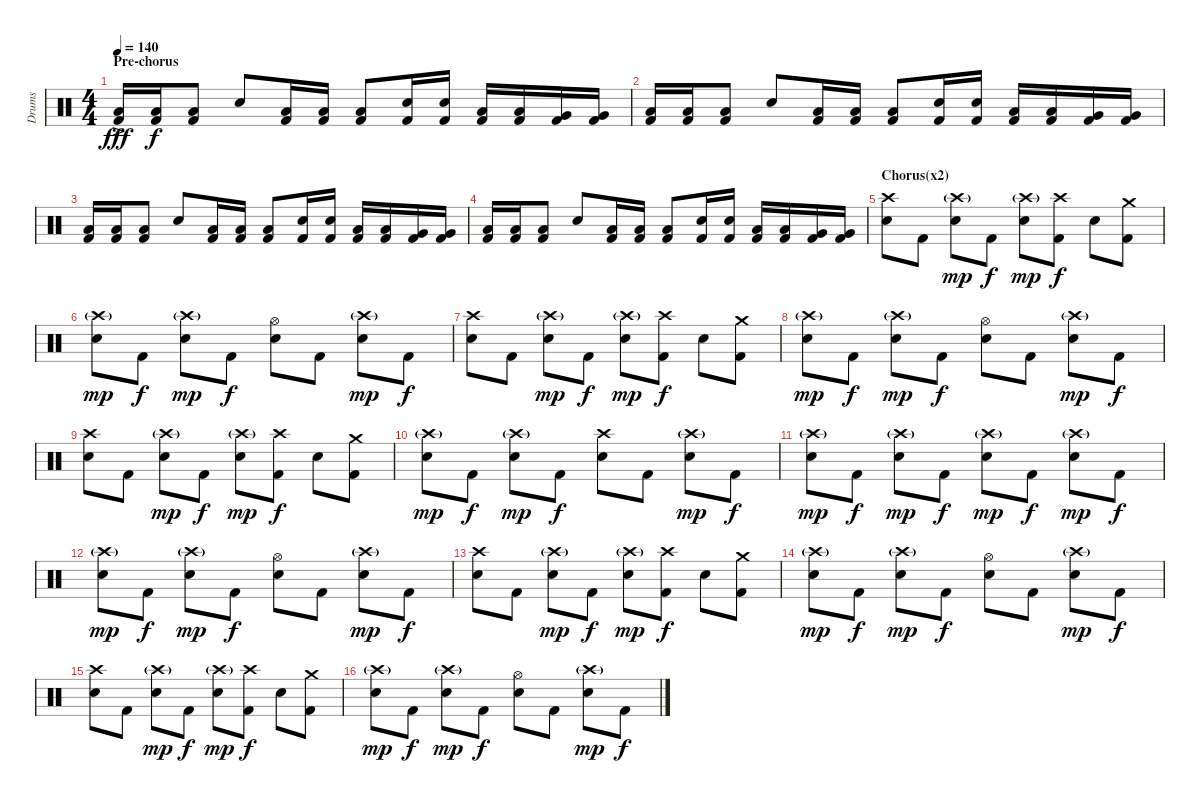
\track ("Drums" "Drums") {instrument percussion}
\staff {score}
\articulation defaults
\ts (4 4)
\section ("" "Pre-chorus")
\tempo 140
\clef neutral
\ks c
("Kick (hit) 2"{ac} "Low Tom (hit)").16{dy fff volume 12} ("Kick (hit) 2" "Low Tom (hit)").16{dy f} ("Kick (hit) 2" "Low Tom (hit)").8 "Electric Snare (hit)".8 ("Kick (hit) 2" "Low Tom (hit)").16 ("Kick (hit) 2" "Low Tom (hit)").16 ("Kick (hit) 2" "Low Tom (hit)").8 ("Kick (hit) 2" "Electric Snare (hit)").16 ("Kick (hit) 2" "Electric Snare (hit)").16 ("Kick (hit) 2" "Low Tom (hit)").16 ("Kick (hit) 2" "Low Tom (hit)").16 ("Kick (hit) 2" "Very Low Tom (hit)").16 ("Kick (hit) 2" "Very Low Tom (hit)").16 |
("Kick (hit) 2" "Low Tom (hit)").16 ("Kick (hit) 2" "Low Tom (hit)").16 ("Kick (hit) 2" "Low Tom (hit)").8 "Electric Snare (hit)".8 ("Kick (hit) 2" "Low Tom (hit)").16 ("Kick (hit) 2" "Low Tom (hit)").16 ("Kick (hit) 2" "Low Tom (hit)").8 ("Kick (hit) 2" "Electric Snare (hit)").16 ("Kick (hit) 2" "Electric Snare (hit)").16 ("Kick (hit) 2" "Low Tom (hit)").16 ("Kick (hit) 2" "Low Tom (hit)").16 ("Kick (hit) 2" "Very Low Tom (hit)").16 ("Kick (hit) 2" "Very Low Tom (hit)").16 |
("Kick (hit) 2" "Low Tom (hit)").16 ("Kick (hit) 2" "Low Tom (hit)").16 ("Kick (hit) 2" "Low Tom (hit)").8 "Electric Snare (hit)".8 ("Kick (hit) 2" "Low Tom (hit)").16 ("Kick (hit) 2" "Low Tom (hit)").16 ("Kick (hit) 2" "Low Tom (hit)").8 ("Kick (hit) 2" "Electric Snare (hit)").16 ("Kick (hit) 2" "Electric Snare (hit)").16 ("Kick (hit) 2" "Low Tom (hit)").16 ("Kick (hit) 2" "Low Tom (hit)").16 ("Kick (hit) 2" "Very Low Tom (hit)").16 ("Kick (hit) 2" "Very Low Tom (hit)").16 |
("Kick (hit) 2" "Low Tom (hit)").16 ("Kick (hit) 2" "Low Tom (hit)").16 ("Kick (hit) 2" "Low Tom (hit)").8 "Electric Snare (hit)".8 ("Kick (hit) 2" "Low Tom (hit)").16 ("Kick (hit) 2" "Low Tom (hit)").16 ("Kick (hit) 2" "Low Tom (hit)").8 ("Kick (hit) 2" "Electric Snare (hit)").16 ("Kick (hit) 2" "Electric Snare (hit)").16 ("Kick (hit) 2" "Low Tom (hit)").16 ("Kick (hit) 2" "Low Tom (hit)").16 ("Kick (hit) 2" "Very Low Tom (hit)").16 ("Kick (hit) 2" "Very Low Tom (hit)").16 |
\section ("" "Chorus(x2)")
("Electric Snare (hit)" "Crash high (hit)").8 "Kick (hit) 2".8 ("Electric Snare (hit)" "Crash high (hit)"{g}).8{dy mp} "Kick (hit) 2".8{dy f} ("Electric Snare (hit)" "Crash high (hit)"{g}).8{dy mp} ("Kick (hit) 2" "Crash high (hit)").8{dy f} "Electric Snare (hit)".8 ("Kick (hit) 2" "Crash medium (hit)").8 |
("Electric Snare (hit)" "Crash high (hit)"{g}).8{dy mp} "Kick (hit) 2".8{dy f} ("Electric Snare (hit)" "Crash high (hit)"{g}).8{dy mp} "Kick (hit) 2".8{dy f} ("Electric Snare (hit)" "Hi-Hat (open)").8 "Kick (hit) 2".8 ("Electric Snare (hit)" "Crash high (hit)"{g}).8{dy mp} "Kick (hit) 2".8{dy f} |
("Electric Snare (hit)" "Crash high (hit)").8 "Kick (hit) 2".8 ("Electric Snare (hit)" "Crash high (hit)"{g}).8{dy mp} "Kick (hit) 2".8{dy f} ("Electric Snare (hit)" "Crash high (hit)"{g}).8{dy mp} ("Kick (hit) 2" "Crash high (hit)").8{dy f} "Electric Snare (hit)".8 ("Kick (hit) 2" "Crash medium (hit)").8 |
("Electric Snare (hit)" "Crash high (hit)"{g}).8{dy mp} "Kick (hit) 2".8{dy f} ("Electric Snare (hit)" "Crash high (hit)"{g}).8{dy mp} "Kick (hit) 2".8{dy f} ("Electric Snare (hit)" "Hi-Hat (open)").8 "Kick (hit) 2".8 ("Electric Snare (hit)" "Crash high (hit)"{g}).8{dy mp} "Kick (hit) 2".8{dy f} |
("Electric Snare (hit)" "Crash high (hit)").8 "Kick (hit) 2".8 ("Electric Snare (hit)" "Crash high (hit)"{g}).8{dy mp} "Kick (hit) 2".8{dy f} ("Electric Snare (hit)" "Crash high (hit)"{g}).8{dy mp} ("Kick (hit) 2" "Crash high (hit)").8{dy f} "Electric Snare (hit)".8 ("Kick (hit) 2" "Crash medium (hit)").8 |
("Electric Snare (hit)" "Crash high (hit)"{g}).8{dy mp} "Kick (hit) 2".8{dy f} ("Electric Snare (hit)" "Crash high (hit)"{g}).8{dy mp} "Kick (hit) 2".8{dy f} ("Electric Snare (hit)" "Crash high (hit)").8 "Kick (hit) 2".8 ("Electric Snare (hit)" "Crash high (hit)"{g}).8{dy mp} "Kick (hit) 2".8{dy f} |
("Electric Snare (hit)" "Crash high (hit)"{g}).8{dy mp} "Kick (hit) 2".8{dy f} ("Electric Snare (hit)" "Crash high (hit)"{g}).8{dy mp} "Kick (hit) 2".8{dy f} ("Electric Snare (hit)" "Crash high (hit)"{g}).8{dy mp} "Kick (hit) 2".8{dy f} ("Electric Snare (hit)" "Crash high (hit)"{g}).8{dy mp} "Kick (hit) 2".8{dy f} |
("Electric Snare (hit)" "Crash high (hit)"{g}).8{dy mp} "Kick (hit) 2".8{dy f} ("Electric Snare (hit)" "Crash high (hit)"{g}).8{dy mp} "Kick (hit) 2".8{dy f} ("Electric Snare (hit)" "Hi-Hat (open)").8 "Kick (hit) 2".8 ("Electric Snare (hit)" "Crash high (hit)"{g}).8{dy mp} "Kick (hit) 2".8{dy f} |
("Electric Snare (hit)" "Crash high (hit)").8 "Kick (hit) 2".8 ("Electric Snare (hit)" "Crash high (hit)"{g}).8{dy mp} "Kick (hit) 2".8{dy f} ("Electric Snare (hit)" "Crash high (hit)"{g}).8{dy mp} ("Kick (hit) 2" "Crash high (hit)").8{dy f} "Electric Snare (hit)".8 ("Kick (hit) 2" "Crash medium (hit)").8 |
("Electric Snare (hit)" "Crash high (hit)"{g}).8{dy mp} "Kick (hit) 2".8{dy f} ("Electric Snare (hit)" "Crash high (hit)"{g}).8{dy mp} "Kick (hit) 2".8{dy f} ("Electric Snare (hit)" "Hi-Hat (open)").8 "Kick (hit) 2".8 ("Electric Snare (hit)" "Crash high (hit)"{g}).8{dy mp} "Kick (hit) 2".8{dy f} |
("Electric Snare (hit)" "Crash high (hit)").8 "Kick (hit) 2".8 ("Electric Snare (hit)" "Crash high (hit)"{g}).8{dy mp} "Kick (hit) 2".8{dy f} ("Electric Snare (hit)" "Crash high (hit)"{g}).8{dy mp} ("Kick (hit) 2" "Crash high (hit)").8{dy f} "Electric Snare (hit)".8 ("Kick (hit) 2" "Crash medium (hit)").8 |
("Electric Snare (hit)" "Crash high (hit)"{g}).8{dy mp} "Kick (hit) 2".8{dy f} ("Electric Snare (hit)" "Crash high (hit)"{g}).8{dy mp} "Kick (hit) 2".8{dy f} ("Electric Snare (hit)" "Hi-Hat (open)").8 "Kick (hit) 2".8 ("Electric Snare (hit)" "Crash high (hit)"{g}).8{dy mp} "Kick (hit) 2".8{dy f}
